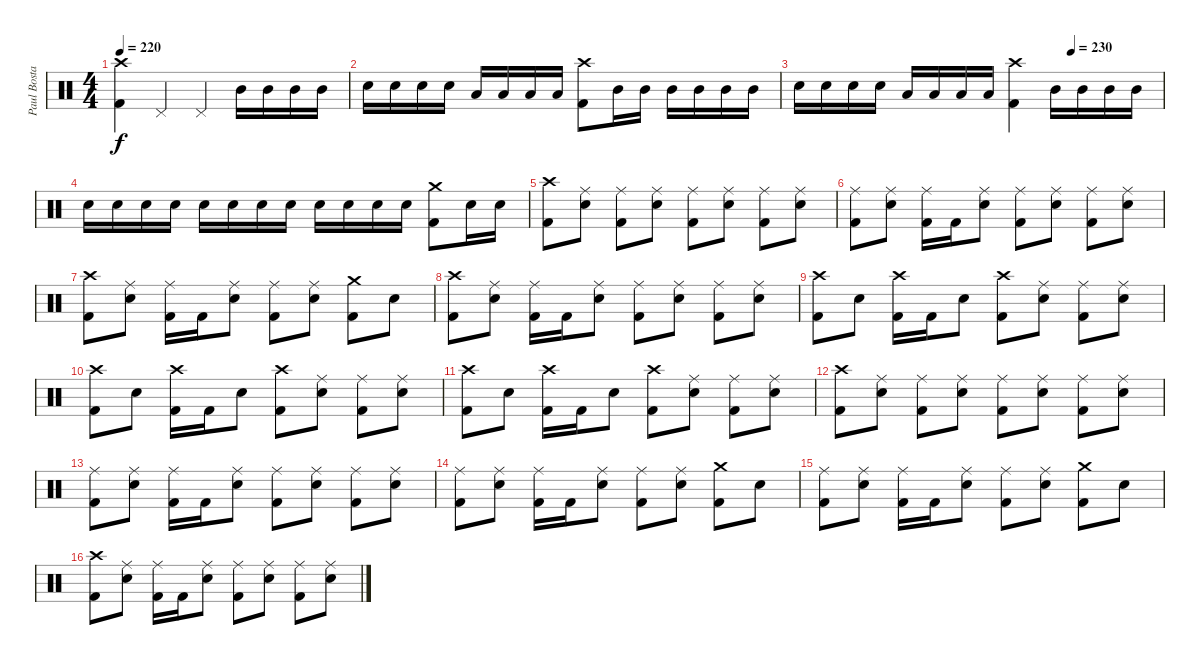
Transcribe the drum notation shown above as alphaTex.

\track ("Paul Bostaph" "Paul Bosta") {instrument percussion}
\staff {score}
\articulation defaults
\ts (4 4)
\tempo 220
\clef neutral
\ks c
("Crash high (hit)" "Kick (hit) 2").4{dy f} "Pedal Hi-Hat (hit)".4 "Pedal Hi-Hat (hit)".4 "Mid Tom (hit)".16 "Mid Tom (hit)".16 "Mid Tom (hit)".16 "Mid Tom (hit)".16 |
"Electric Snare (hit)".16 "Electric Snare (hit)".16 "Electric Snare (hit)".16 "Electric Snare (hit)".16 "Low Tom (hit)".16 "Low Tom (hit)".16 "Low Tom (hit)".16 "Low Tom (hit)".16 ("Crash high (hit)" "Kick (hit) 2").8 "Mid Tom (hit)".16 "Mid Tom (hit)".16 "Mid Tom (hit)".16 "Mid Tom (hit)".16 "Mid Tom (hit)".16 "Mid Tom (hit)".16 |
\tempo (230 0.75)
"Electric Snare (hit)".16 "Electric Snare (hit)".16 "Electric Snare (hit)".16 "Electric Snare (hit)".16 "Low Tom (hit)".16 "Low Tom (hit)".16 "Low Tom (hit)".16 "Low Tom (hit)".16 ("Crash high (hit)" "Kick (hit) 2").4 "Mid Tom (hit)".16 "Mid Tom (hit)".16 "Mid Tom (hit)".16 "Mid Tom (hit)".16 |
"Electric Snare (hit)".16 "Electric Snare (hit)".16 "Electric Snare (hit)".16 "Electric Snare (hit)".16 "Electric Snare (hit)".16 "Electric Snare (hit)".16 "Electric Snare (hit)".16 "Electric Snare (hit)".16 "Electric Snare (hit)".16 "Electric Snare (hit)".16 "Electric Snare (hit)".16 "Electric Snare (hit)".16 ("Crash medium (hit)" "Kick (hit) 2").8 "Electric Snare (hit)".16 "Electric Snare (hit)".16 |
("Crash high (hit)" "Kick (hit) 2").8 ("Electric Snare (hit)" "Ride (middle)").8 ("Kick (hit) 2" "Ride (middle)").8 ("Electric Snare (hit)" "Ride (middle)").8 ("Kick (hit) 2" "Ride (middle)").8 ("Electric Snare (hit)" "Ride (middle)").8 ("Kick (hit) 2" "Ride (middle)").8 ("Electric Snare (hit)" "Ride (middle)").8 |
("Ride (middle)" "Kick (hit) 2").8 ("Electric Snare (hit)" "Ride (middle)").8 ("Kick (hit) 2" "Ride (middle)").16 "Kick (hit) 2".16 ("Electric Snare (hit)" "Ride (middle)").8 ("Kick (hit) 2" "Ride (middle)").8 ("Electric Snare (hit)" "Ride (middle)").8 ("Kick (hit) 2" "Ride (middle)").8 ("Electric Snare (hit)" "Ride (middle)").8 |
("Crash high (hit)" "Kick (hit) 2").8 ("Electric Snare (hit)" "Ride (middle)").8 ("Kick (hit) 2" "Ride (middle)").16 "Kick (hit) 2".16 ("Electric Snare (hit)" "Ride (middle)").8 ("Kick (hit) 2" "Ride (middle)").8 ("Electric Snare (hit)" "Ride (middle)").8 ("Kick (hit) 2" "Crash medium (hit)").8 "Electric Snare (hit)".8 |
("Crash high (hit)" "Kick (hit) 2").8 ("Electric Snare (hit)" "Ride (middle)").8 ("Kick (hit) 2" "Ride (middle)").16 "Kick (hit) 2".16 ("Electric Snare (hit)" "Ride (middle)").8 ("Kick (hit) 2" "Ride (middle)").8 ("Electric Snare (hit)" "Ride (middle)").8 ("Kick (hit) 2" "Ride (middle)").8 ("Electric Snare (hit)" "Ride (middle)").8 |
("Crash high (hit)" "Kick (hit) 2").8 "Electric Snare (hit)".8 ("Kick (hit) 2" "Crash high (hit)").16 "Kick (hit) 2".16 "Electric Snare (hit)".8 ("Kick (hit) 2" "Crash high (hit)").8 ("Electric Snare (hit)" "Ride (middle)").8 ("Kick (hit) 2" "Ride (middle)").8 ("Electric Snare (hit)" "Ride (middle)").8 |
("Crash high (hit)" "Kick (hit) 2").8 "Electric Snare (hit)".8 ("Kick (hit) 2" "Crash high (hit)").16 "Kick (hit) 2".16 "Electric Snare (hit)".8 ("Kick (hit) 2" "Crash high (hit)").8 ("Electric Snare (hit)" "Ride (middle)").8 ("Kick (hit) 2" "Ride (middle)").8 ("Electric Snare (hit)" "Ride (middle)").8 |
("Kick (hit) 2" "Crash high (hit)").8 "Electric Snare (hit)".8 ("Kick (hit) 2" "Crash high (hit)").16 "Kick (hit) 2".16 "Electric Snare (hit)".8 ("Kick (hit) 2" "Crash high (hit)").8 ("Electric Snare (hit)" "Ride (middle)").8 ("Kick (hit) 2" "Ride (middle)").8 ("Electric Snare (hit)" "Ride (middle)").8 |
("Crash high (hit)" "Kick (hit) 2").8 ("Electric Snare (hit)" "Ride (middle)").8 ("Kick (hit) 2" "Ride (middle)").8 ("Electric Snare (hit)" "Ride (middle)").8 ("Kick (hit) 2" "Ride (middle)").8 ("Electric Snare (hit)" "Ride (middle)").8 ("Kick (hit) 2" "Ride (middle)").8 ("Electric Snare (hit)" "Ride (middle)").8 |
("Ride (middle)" "Kick (hit) 2").8 ("Electric Snare (hit)" "Ride (middle)").8 ("Kick (hit) 2" "Ride (middle)").16 "Kick (hit) 2".16 ("Electric Snare (hit)" "Ride (middle)").8 ("Kick (hit) 2" "Ride (middle)").8 ("Electric Snare (hit)" "Ride (middle)").8 ("Kick (hit) 2" "Ride (middle)").8 ("Electric Snare (hit)" "Ride (middle)").8 |
("Ride (middle)" "Kick (hit) 2").8 ("Electric Snare (hit)" "Ride (middle)").8 ("Kick (hit) 2" "Ride (middle)").16 "Kick (hit) 2".16 ("Electric Snare (hit)" "Ride (middle)").8 ("Kick (hit) 2" "Ride (middle)").8 ("Electric Snare (hit)" "Ride (middle)").8 ("Kick (hit) 2" "Crash medium (hit)").8 "Electric Snare (hit)".8 |
("Ride (middle)" "Kick (hit) 2").8 ("Electric Snare (hit)" "Ride (middle)").8 ("Kick (hit) 2" "Ride (middle)").16 "Kick (hit) 2".16 ("Electric Snare (hit)" "Ride (middle)").8 ("Kick (hit) 2" "Ride (middle)").8 ("Electric Snare (hit)" "Ride (middle)").8 ("Kick (hit) 2" "Crash medium (hit)").8 "Electric Snare (hit)".8 |
("Crash high (hit)" "Kick (hit) 2").8 ("Electric Snare (hit)" "Ride (middle)").8 ("Kick (hit) 2" "Ride (middle)").16 "Kick (hit) 2".16 ("Electric Snare (hit)" "Ride (middle)").8 ("Kick (hit) 2" "Ride (middle)").8 ("Electric Snare (hit)" "Ride (middle)").8 ("Kick (hit) 2" "Ride (middle)").8 ("Electric Snare (hit)" "Ride (middle)").8
